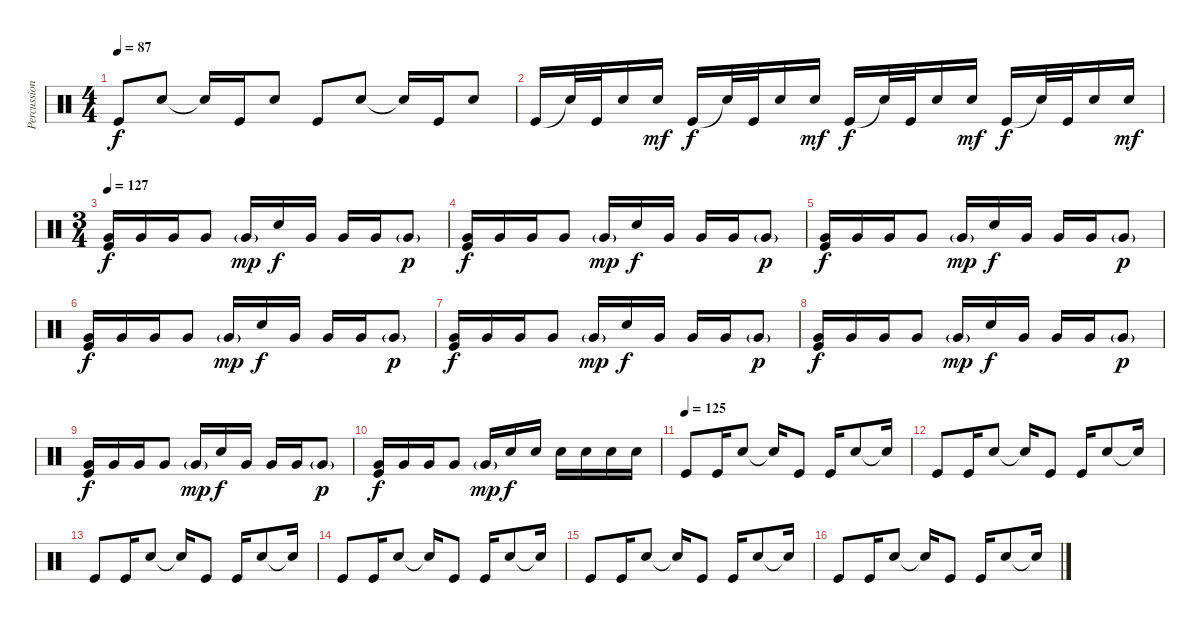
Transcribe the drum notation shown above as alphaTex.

\track ("Percussion" "Percussion") {instrument percussion}
\staff {score}
\articulation defaults
\ts (4 4)
\tempo 87
\clef neutral
\ks c "Kick (hit)".8{dy f} "Electric Snare (hit)".8 "Snare (hit)"{t}.16 "Kick (hit)".16 "Electric Snare (hit)".8 "Kick (hit)".8 "Electric Snare (hit)".8 "Snare (hit)"{t}.16 "Kick (hit)".16 "Electric Snare (hit)".8
|
"Kick (hit)".16 "Snare (hit)"{t}.32 "Kick (hit)".32 "Electric Snare (hit)".16 "Electric Snare (hit)".16{dy mf} "Kick (hit)".16{dy f} "Snare (hit)"{t}.32 "Kick (hit)".32 "Electric Snare (hit)".16 "Electric Snare (hit)".16{dy mf} "Kick (hit)".16{dy f} "Snare (hit)"{t}.32 "Kick (hit)".32 "Electric Snare (hit)".16 "Electric Snare (hit)".16{dy mf} "Kick (hit)".16{dy f} "Snare (hit)"{t}.32 "Kick (hit)".32 "Electric Snare (hit)".16 "Electric Snare (hit)".16{dy mf} |
\ts (3 4)
\tempo 127
("Very Low Tom (hit)" "Kick (hit)").16{dy f} "Very Low Tom (hit)".16 "Very Low Tom (hit)".16 "Very Low Tom (hit)".8 "Very Low Tom (hit)"{g}.16{dy mp} "Electric Snare (hit)".16{dy f} "Very Low Tom (hit)".16 "Very Low Tom (hit)".16 "Very Low Tom (hit)".16 "Very Low Tom (hit)"{g}.8{dy p} |
("Very Low Tom (hit)" "Kick (hit)").16{dy f} "Very Low Tom (hit)".16 "Very Low Tom (hit)".16 "Very Low Tom (hit)".8 "Very Low Tom (hit)"{g}.16{dy mp} "Electric Snare (hit)".16{dy f} "Very Low Tom (hit)".16 "Very Low Tom (hit)".16 "Very Low Tom (hit)".16 "Very Low Tom (hit)"{g}.8{dy p} |
("Very Low Tom (hit)" "Kick (hit)").16{dy f} "Very Low Tom (hit)".16 "Very Low Tom (hit)".16 "Very Low Tom (hit)".8 "Very Low Tom (hit)"{g}.16{dy mp} "Electric Snare (hit)".16{dy f} "Very Low Tom (hit)".16 "Very Low Tom (hit)".16 "Very Low Tom (hit)".16 "Very Low Tom (hit)"{g}.8{dy p} |
("Very Low Tom (hit)" "Kick (hit)").16{dy f} "Very Low Tom (hit)".16 "Very Low Tom (hit)".16 "Very Low Tom (hit)".8 "Very Low Tom (hit)"{g}.16{dy mp} "Electric Snare (hit)".16{dy f} "Very Low Tom (hit)".16 "Very Low Tom (hit)".16 "Very Low Tom (hit)".16 "Very Low Tom (hit)"{g}.8{dy p} |
("Very Low Tom (hit)" "Kick (hit)").16{dy f} "Very Low Tom (hit)".16 "Very Low Tom (hit)".16 "Very Low Tom (hit)".8 "Very Low Tom (hit)"{g}.16{dy mp} "Electric Snare (hit)".16{dy f} "Very Low Tom (hit)".16 "Very Low Tom (hit)".16 "Very Low Tom (hit)".16 "Very Low Tom (hit)"{g}.8{dy p} |
("Very Low Tom (hit)" "Kick (hit)").16{dy f} "Very Low Tom (hit)".16 "Very Low Tom (hit)".16 "Very Low Tom (hit)".8 "Very Low Tom (hit)"{g}.16{dy mp} "Electric Snare (hit)".16{dy f} "Very Low Tom (hit)".16 "Very Low Tom (hit)".16 "Very Low Tom (hit)".16 "Very Low Tom (hit)"{g}.8{dy p} |
("Very Low Tom (hit)" "Kick (hit)").16{dy f} "Very Low Tom (hit)".16 "Very Low Tom (hit)".16 "Very Low Tom (hit)".8 "Very Low Tom (hit)"{g}.16{dy mp} "Electric Snare (hit)".16{dy f} "Very Low Tom (hit)".16 "Very Low Tom (hit)".16 "Very Low Tom (hit)".16 "Very Low Tom (hit)"{g}.8{dy p} |
("Very Low Tom (hit)" "Kick (hit)").16{dy f} "Very Low Tom (hit)".16 "Very Low Tom (hit)".16 "Very Low Tom (hit)".8 "Very Low Tom (hit)"{g}.16{dy mp} "Electric Snare (hit)".16{dy f} "Electric Snare (hit)".16 "Electric Snare (hit)".16 "Electric Snare (hit)".16 "Electric Snare (hit)".16 "Electric Snare (hit)".16 |
\tempo (125)
"Kick (hit)".8 "Kick (hit)".16 "Electric Snare (hit)".8 "Snare (hit)"{t}.16 "Kick (hit)".8 "Kick (hit)".16 "Electric Snare (hit)".8 "Snare (hit)"{t}.16 |
"Kick (hit)".8 "Kick (hit)".16 "Electric Snare (hit)".8 "Snare (hit)"{t}.16 "Kick (hit)".8 "Kick (hit)".16 "Electric Snare (hit)".8 "Snare (hit)"{t}.16 |
"Kick (hit)".8 "Kick (hit)".16 "Electric Snare (hit)".8 "Snare (hit)"{t}.16 "Kick (hit)".8 "Kick (hit)".16 "Electric Snare (hit)".8 "Snare (hit)"{t}.16 |
"Kick (hit)".8 "Kick (hit)".16 "Electric Snare (hit)".8 "Snare (hit)"{t}.16 "Kick (hit)".8 "Kick (hit)".16 "Electric Snare (hit)".8 "Snare (hit)"{t}.16 |
"Kick (hit)".8 "Kick (hit)".16 "Electric Snare (hit)".8 "Snare (hit)"{t}.16 "Kick (hit)".8 "Kick (hit)".16 "Electric Snare (hit)".8 "Snare (hit)"{t}.16 |
"Kick (hit)".8 "Kick (hit)".16 "Electric Snare (hit)".8 "Snare (hit)"{t}.16 "Kick (hit)".8 "Kick (hit)".16 "Electric Snare (hit)".8 "Snare (hit)"{t}.16
